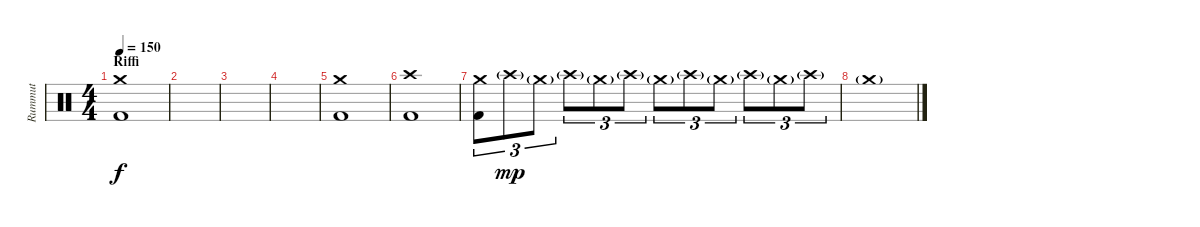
\track ("Rummut" "Rummut") {instrument percussion}
\staff {score}
\articulation defaults
\ts (4 4)
\section ("" "Riffi")
\tempo 150
\clef neutral
\ks c
("Crash medium (hit)" "Kick (hit) 2").1{dy f} |
|
|
|
("Crash medium (hit)" "Kick (hit) 2").1 |
("Crash high (hit)" "Kick (hit) 2").1 |
("Crash medium (hit)" "Kick (hit) 2").8{tu (3 2)} "Crash high (hit)"{g}.8{tu (3 2) dy mp} "Crash medium (hit)"{g}.8{tu (3 2)} "Crash high (hit)"{g}.8{tu (3 2)} "Crash medium (hit)"{g}.8{tu (3 2)} "Crash high (hit)"{g}.8{tu (3 2)} "Crash medium (hit)"{g}.8{tu (3 2)} "Crash high (hit)"{g}.8{tu (3 2)} "Crash medium (hit)"{g}.8{tu (3 2)} "Crash high (hit)"{g}.8{tu (3 2)} "Crash medium (hit)"{g}.8{tu (3 2)} "Crash high (hit)"{g}.8{tu (3 2)} |
"Crash medium (hit)"{g}.1
